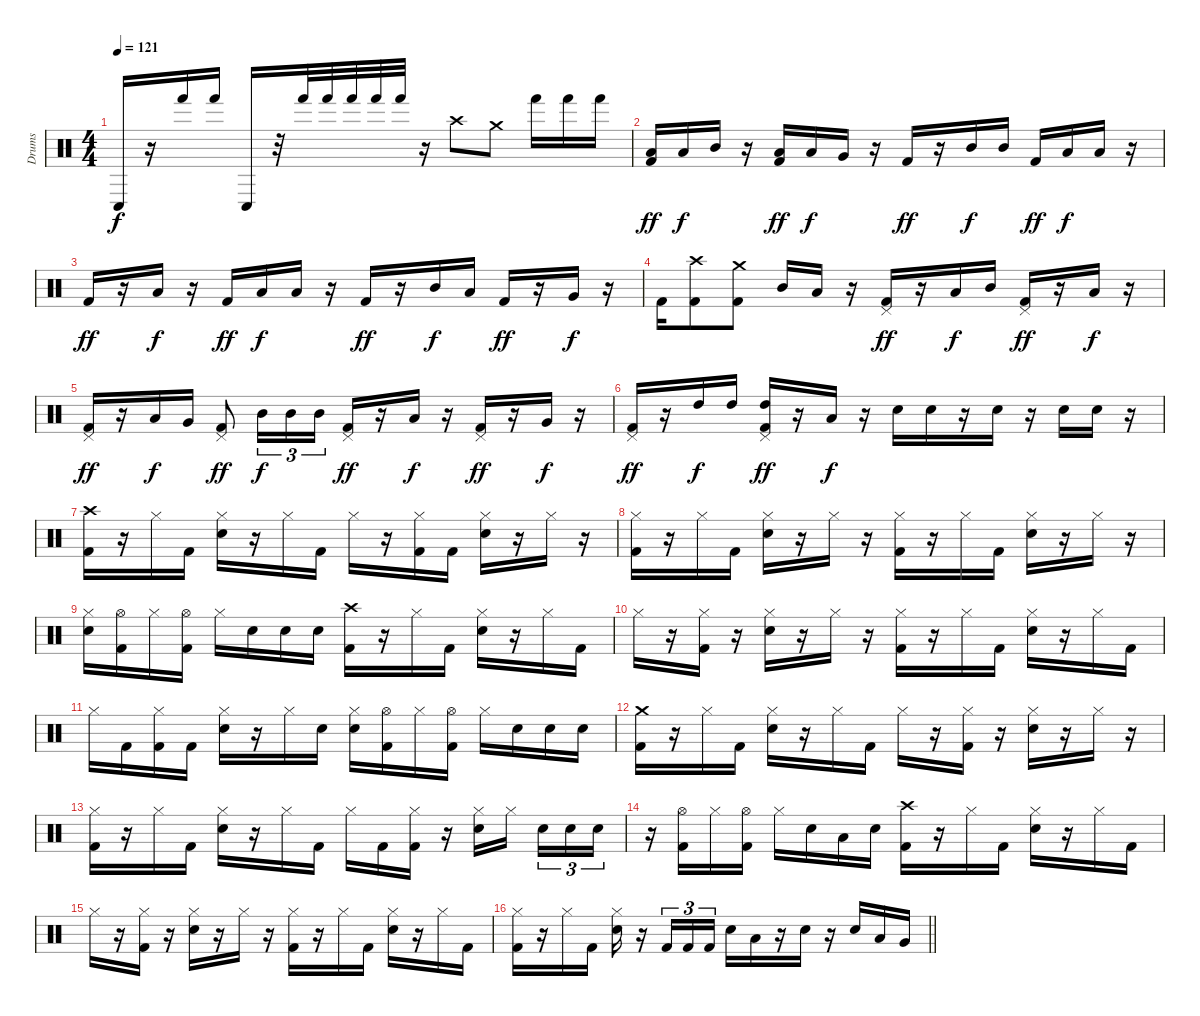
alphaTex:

\track ("Drums" "Drums") {instrument percussion}
\staff {score}
\articulation defaults
\ts (4 4)
\tempo 121
\clef neutral
\ks c "Conga low (hit)".16{dy f}
r.16 "Hand (hit)".16 "Hand (hit)".16 "Conga low (hit)".16 r.32 "Hand (hit)".32 "Hand (hit)".32 "Hand (hit)".32 "Hand (hit)".32 "Hand (hit)".32 r.16 "Crash high (hit)".8 "Crash medium (hit)".8 "Hand (hit)".16 "Hand (hit)".16 "Hand (hit)".16 |
("Low Tom (hit)" "Kick (hit) 2").16{dy ff} "Low Tom (hit)".16{dy f} "Mid Tom (hit)".16 r.16 ("Low Tom (hit)" "Kick (hit) 2").16{dy ff} "Low Tom (hit)".16{dy f} "Very Low Tom (hit)".16 r.16 "Kick (hit) 2".16{dy ff} r.16 "Mid Tom (hit)".16{dy f} "Mid Tom (hit)".16 "Kick (hit) 2".16{dy ff} "Low Tom (hit)".16{dy f} "Low Tom (hit)".16 r.16 |
"Kick (hit) 2".16{dy ff} r.16 "Low Tom (hit)".16{dy f} r.16 "Kick (hit) 2".16{dy ff} "Low Tom (hit)".16{dy f} "Low Tom (hit)".16 r.16 "Kick (hit) 2".16{dy ff} r.16 "Mid Tom (hit)".16{dy f} "Low Tom (hit)".16 "Kick (hit) 2".16{dy ff} r.16 "Very Low Tom (hit)".16{dy f} r.16 |
"Kick (hit) 2".16 ("Crash high (hit)" "Kick (hit) 2").8 ("Crash medium (hit)" "Kick (hit) 2").8 "Mid Tom (hit)".16 "Low Tom (hit)".16 r.16 ("Pedal Hi-Hat (hit)" "Kick (hit) 2").16{dy ff} r.16 "Low Tom (hit)".16{dy f} "Mid Tom (hit)".16 ("Pedal Hi-Hat (hit)" "Kick (hit) 2").16{dy ff} r.16 "Low Tom (hit)".16{dy f} r.16 |
("Pedal Hi-Hat (hit)" "Kick (hit) 2").16{dy ff} r.16 "Low Tom (hit)".16{dy f} "Very Low Tom (hit)".16 ("Pedal Hi-Hat (hit)" "Kick (hit) 2").8{dy ff} "Mid Tom (hit)".16{tu (3 2) dy f} "Mid Tom (hit)".16{tu (3 2)} "Mid Tom (hit)".16{tu (3 2)} ("Pedal Hi-Hat (hit)" "Kick (hit) 2").16{dy ff} r.16 "Low Tom (hit)".16{dy f} r.16 ("Pedal Hi-Hat (hit)" "Kick (hit) 2").16{dy ff} r.16 "Very Low Tom (hit)".16{dy f} r.16 |
("Pedal Hi-Hat (hit)" "Kick (hit) 2").16{dy ff} r.16 "High Tom (hit)".16{dy f} "High Tom (hit)".16 ("Pedal Hi-Hat (hit)" "High Tom (hit)" "Kick (hit) 2").16{dy ff} r.16 "Low Tom (hit)".16{dy f} r.16 "Snare (hit) 2".16 "Snare (hit) 2".16 r.16 "Snare (hit) 2".16 r.16 "Snare (hit) 2".16 "Snare (hit) 2".16 r.16 |
("Crash high (hit)" "Kick (hit) 2").16 r.16 "Hi-Hat (closed)".16 "Kick (hit) 2".16 ("Hi-Hat (closed)" "Snare (hit) 2").16 r.16 "Hi-Hat (closed)".16 "Kick (hit) 2".16 "Hi-Hat (closed)".16 r.16 ("Hi-Hat (closed)" "Kick (hit) 2").16 "Kick (hit) 2".16 ("Hi-Hat (closed)" "Snare (hit) 2").16 r.16 "Hi-Hat (closed)".16 r.16 |
("Hi-Hat (closed)" "Kick (hit) 2").16 r.16 "Hi-Hat (closed)".16 "Kick (hit) 2".16 ("Hi-Hat (closed)" "Snare (hit) 2").16 r.16 "Hi-Hat (closed)".16 r.16 ("Hi-Hat (closed)" "Kick (hit) 2").16 r.16 "Hi-Hat (closed)".16 "Kick (hit) 2".16 ("Hi-Hat (closed)" "Snare (hit) 2").16 r.16 "Hi-Hat (closed)".16 r.16 |
("Hi-Hat (closed)" "Snare (hit) 2").16 ("Hi-Hat (open)" "Kick (hit) 2").16 "Hi-Hat (closed)".16 ("Hi-Hat (open)" "Kick (hit) 2").16 "Hi-Hat (closed)".16 "Snare (hit) 2".16 "Snare (hit) 2".16 "Snare (hit) 2".16 ("Crash high (hit)" "Kick (hit) 2").16 r.16 "Hi-Hat (closed)".16 "Kick (hit) 2".16 ("Hi-Hat (closed)" "Snare (hit) 2").16 r.16 "Hi-Hat (closed)".16 "Kick (hit) 2".16 |
"Hi-Hat (closed)".16 r.16 ("Hi-Hat (closed)" "Kick (hit) 2").16 r.16 ("Hi-Hat (closed)" "Snare (hit) 2").16 r.16 "Hi-Hat (closed)".16 r.16 ("Hi-Hat (closed)" "Kick (hit) 2").16 r.16 "Hi-Hat (closed)".16 "Kick (hit) 2".16 ("Hi-Hat (closed)" "Snare (hit) 2").16 r.16 "Hi-Hat (closed)".16 "Kick (hit) 2".16 |
"Hi-Hat (closed)".16 "Kick (hit) 2".16 ("Hi-Hat (closed)" "Kick (hit) 2").16 "Kick (hit) 2".16 ("Hi-Hat (closed)" "Snare (hit) 2").16 r.16 "Hi-Hat (closed)".16 "Snare (hit) 2".16 ("Hi-Hat (closed)" "Snare (hit) 2").16 ("Hi-Hat (open)" "Kick (hit) 2").16 "Hi-Hat (closed)".16 ("Hi-Hat (open)" "Kick (hit) 2").16 "Hi-Hat (closed)".16 "Snare (hit) 2".16 "Snare (hit) 2".16 "Snare (hit) 2".16 |
("Crash medium (hit)" "Kick (hit) 2").16 r.16 "Hi-Hat (closed)".16 "Kick (hit) 2".16 ("Hi-Hat (closed)" "Snare (hit) 2").16 r.16 "Hi-Hat (closed)".16 "Kick (hit) 2".16 "Hi-Hat (closed)".16 r.16 ("Hi-Hat (closed)" "Kick (hit) 2").16 r.16 ("Hi-Hat (closed)" "Snare (hit) 2").16 r.16 "Hi-Hat (closed)".16 r.16 |
("Hi-Hat (closed)" "Kick (hit) 2").16 r.16 "Hi-Hat (closed)".16 "Kick (hit) 2".16 ("Hi-Hat (closed)" "Snare (hit) 2").16 r.16 "Hi-Hat (closed)".16 "Kick (hit) 2".16 "Hi-Hat (closed)".16 "Kick (hit) 2".16 ("Hi-Hat (closed)" "Kick (hit) 2").16 r.16 ("Hi-Hat (closed)" "Snare (hit) 2").16 "Hi-Hat (closed)".16{beam splitsecondary} "Snare (hit) 2".16{tu (3 2)} "Snare (hit) 2".16{tu (3 2)} "Snare (hit) 2".16{tu (3 2)} |
r.16 ("Hi-Hat (open)" "Kick (hit) 2").16 "Hi-Hat (closed)".16 ("Hi-Hat (open)" "Kick (hit) 2").16 "Hi-Hat (closed)".16 "Snare (hit) 2".16 "Low Tom (hit)".16 "Snare (hit) 2".16 ("Crash high (hit)" "Kick (hit) 2").16 r.16 "Hi-Hat (closed)".16 "Kick (hit) 2".16 ("Hi-Hat (closed)" "Snare (hit) 2").16 r.16 "Hi-Hat (closed)".16 "Kick (hit) 2".16 |
"Hi-Hat (closed)".16 r.16 ("Hi-Hat (closed)" "Kick (hit) 2").16 r.16 ("Hi-Hat (closed)" "Snare (hit) 2").16 r.16 "Hi-Hat (closed)".16 r.16 ("Hi-Hat (closed)" "Kick (hit) 2").16 r.16 "Hi-Hat (closed)".16 "Kick (hit) 2".16 ("Hi-Hat (closed)" "Snare (hit) 2").16 r.16 "Hi-Hat (closed)".16 "Kick (hit) 2".16 |
\barLineRight lightlight
("Hi-Hat (closed)" "Kick (hit) 2").16 r.16 "Hi-Hat (closed)".16 "Kick (hit) 2".16 ("Hi-Hat (closed)" "Snare (hit) 2").16 r.16 "Kick (hit) 2".16{tu (3 2)} "Kick (hit) 2".16{tu (3 2)} "Kick (hit) 2".16{tu (3 2)} "Snare (hit) 2".16 "Low Tom (hit)".16 r.16 "Snare (hit) 2".16 r.16 "Snare (hit) 2".16 "Low Tom (hit)".16 "Very Low Tom (hit)".16
